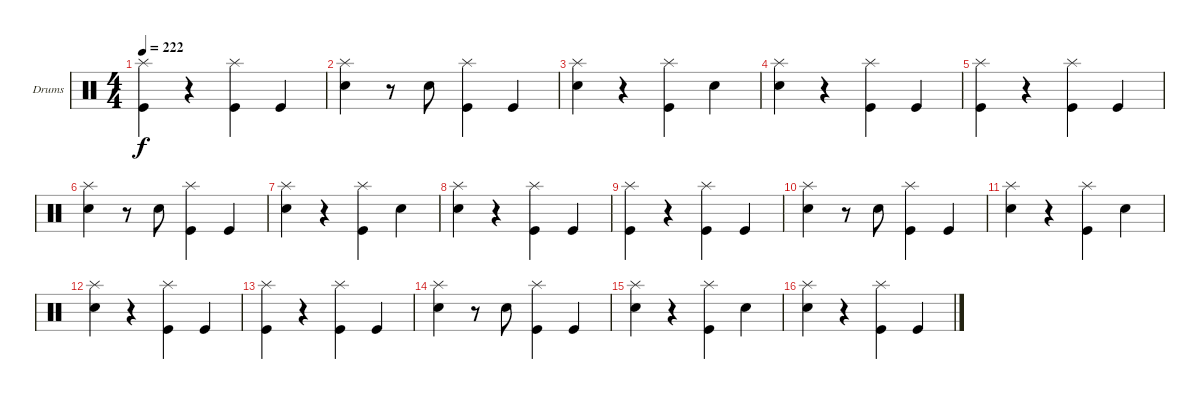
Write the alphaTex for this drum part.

\defaultSystemsLayout 4
\bracketExtendMode groupsimilarinstruments
\firstSystemTrackNameOrientation horizontal
\otherSystemsTrackNameOrientation horizontal
\track ("Drumkit" "Drums") {mute instrument percussion}
\staff {score}
\articulation defaults
\ts (4 4)
\tempo 222
\clef neutral
\ks c
("Kick (hit)" "Splash (hit)").4{dy f} r.4 ("Kick (hit)" "Splash (hit)").4 "Kick (hit)".4 |
("Snare (hit) 2" "Splash (hit)").4 r.8 "Snare (hit) 2".8 ("Splash (hit)" "Kick (hit)").4 "Kick (hit)".4 |
("Splash (hit)" "Snare (hit) 2").4 r.4 ("Splash (hit)" "Kick (hit)").4 "Snare (hit) 2".4 |
("Snare (hit) 2" "Splash (hit)").4 r.4 ("Splash (hit)" "Kick (hit)").4 "Kick (hit)".4 |
("Kick (hit)" "Splash (hit)").4 r.4 ("Kick (hit)" "Splash (hit)").4 "Kick (hit)".4 |
("Snare (hit) 2" "Splash (hit)").4 r.8 "Snare (hit) 2".8 ("Splash (hit)" "Kick (hit)").4 "Kick (hit)".4 |
("Splash (hit)" "Snare (hit) 2").4 r.4 ("Splash (hit)" "Kick (hit)").4 "Snare (hit) 2".4 |
("Snare (hit) 2" "Splash (hit)").4 r.4 ("Splash (hit)" "Kick (hit)").4 "Kick (hit)".4 |
("Kick (hit)" "Splash (hit)").4 r.4 ("Kick (hit)" "Splash (hit)").4 "Kick (hit)".4 |
("Snare (hit) 2" "Splash (hit)").4 r.8 "Snare (hit) 2".8 ("Splash (hit)" "Kick (hit)").4 "Kick (hit)".4 |
("Splash (hit)" "Snare (hit) 2").4 r.4 ("Splash (hit)" "Kick (hit)").4 "Snare (hit) 2".4 |
("Snare (hit) 2" "Splash (hit)").4 r.4 ("Splash (hit)" "Kick (hit)").4 "Kick (hit)".4 |
("Kick (hit)" "Splash (hit)").4 r.4 ("Kick (hit)" "Splash (hit)").4 "Kick (hit)".4 |
("Snare (hit) 2" "Splash (hit)").4 r.8 "Snare (hit) 2".8 ("Splash (hit)" "Kick (hit)").4 "Kick (hit)".4 |
("Splash (hit)" "Snare (hit) 2").4 r.4 ("Splash (hit)" "Kick (hit)").4 "Snare (hit) 2".4 |
("Snare (hit) 2" "Splash (hit)").4 r.4 ("Splash (hit)" "Kick (hit)").4 "Kick (hit)".4
